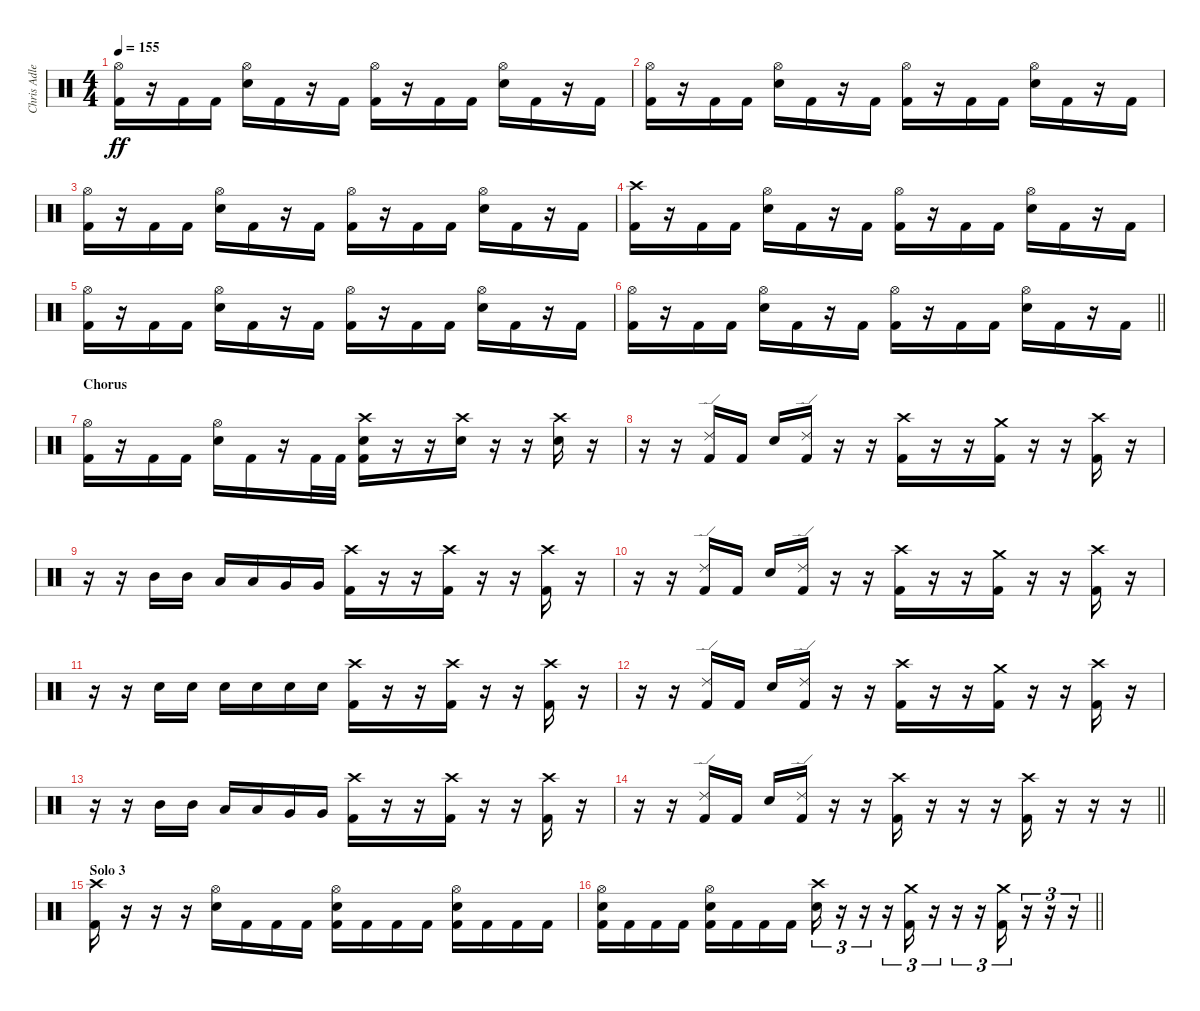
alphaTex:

\track ("Chris Adler" "Chris Adle") {instrument percussion}
\staff {score}
\articulation defaults
\ts (4 4)
\tempo 155
\clef neutral
\ks c
("Hi-Hat (open)" "Kick (hit) 2").16{dy ff} r.16 "Kick (hit) 2".16 "Kick (hit) 2".16 ("Hi-Hat (open)" "Snare (hit) 2").16 "Kick (hit) 2".16 r.16 "Kick (hit) 2".16 ("Hi-Hat (open)" "Kick (hit) 2").16 r.16 "Kick (hit) 2".16 "Kick (hit) 2".16 ("Hi-Hat (open)" "Snare (hit) 2").16 "Kick (hit) 2".16 r.16 "Kick (hit) 2".16 |
("Hi-Hat (open)" "Kick (hit) 2").16 r.16 "Kick (hit) 2".16 "Kick (hit) 2".16 ("Hi-Hat (open)" "Snare (hit) 2").16 "Kick (hit) 2".16 r.16 "Kick (hit) 2".16 ("Hi-Hat (open)" "Kick (hit) 2").16 r.16 "Kick (hit) 2".16 "Kick (hit) 2".16 ("Hi-Hat (open)" "Snare (hit) 2").16 "Kick (hit) 2".16 r.16 "Kick (hit) 2".16 |
("Hi-Hat (open)" "Kick (hit) 2").16 r.16 "Kick (hit) 2".16 "Kick (hit) 2".16 ("Hi-Hat (open)" "Snare (hit) 2").16 "Kick (hit) 2".16 r.16 "Kick (hit) 2".16 ("Hi-Hat (open)" "Kick (hit) 2").16 r.16 "Kick (hit) 2".16 "Kick (hit) 2".16 ("Hi-Hat (open)" "Snare (hit) 2").16 "Kick (hit) 2".16 r.16 "Kick (hit) 2".16 |
("Crash high (hit)" "Kick (hit) 2").16 r.16 "Kick (hit) 2".16 "Kick (hit) 2".16 ("Hi-Hat (open)" "Snare (hit) 2").16 "Kick (hit) 2".16 r.16 "Kick (hit) 2".16 ("Hi-Hat (open)" "Kick (hit) 2").16 r.16 "Kick (hit) 2".16 "Kick (hit) 2".16 ("Hi-Hat (open)" "Snare (hit) 2").16 "Kick (hit) 2".16 r.16 "Kick (hit) 2".16 |
("Hi-Hat (open)" "Kick (hit) 2").16 r.16 "Kick (hit) 2".16 "Kick (hit) 2".16 ("Hi-Hat (open)" "Snare (hit) 2").16 "Kick (hit) 2".16 r.16 "Kick (hit) 2".16 ("Hi-Hat (open)" "Kick (hit) 2").16 r.16 "Kick (hit) 2".16 "Kick (hit) 2".16 ("Hi-Hat (open)" "Snare (hit) 2").16 "Kick (hit) 2".16 r.16 "Kick (hit) 2".16 |
\barLineRight lightlight
("Hi-Hat (open)" "Kick (hit) 2").16 r.16 "Kick (hit) 2".16 "Kick (hit) 2".16 ("Hi-Hat (open)" "Snare (hit) 2").16 "Kick (hit) 2".16 r.16 "Kick (hit) 2".16 ("Hi-Hat (open)" "Kick (hit) 2").16 r.16 "Kick (hit) 2".16 "Kick (hit) 2".16 ("Hi-Hat (open)" "Snare (hit) 2").16 "Kick (hit) 2".16 r.16 "Kick (hit) 2".16 |
\section ("" "Chorus")
("Hi-Hat (open)" "Kick (hit) 2").16 r.16 "Kick (hit) 2".16 "Kick (hit) 2".16 ("Hi-Hat (open)" "Snare (hit) 2").16 "Kick (hit) 2".16 r.16 "Kick (hit) 2".32 "Kick (hit) 2".32 ("Crash high (hit)" "Snare (hit) 2" "Kick (hit) 2").16 r.16 r.16 ("Crash high (hit)" "Snare (hit) 2").16 r.16 r.16 ("Crash high (hit)" "Snare (hit) 2").16 r.16 |
r.16 r.16 ("Ride (edge) 2" "Kick (hit) 2").16 "Kick (hit) 2".16 "Snare (hit) 2".16 ("Ride (edge) 2" "Kick (hit) 2").16 r.16 r.16 ("Crash high (hit)" "Kick (hit) 2").16 r.16 r.16 ("Crash medium (hit)" "Kick (hit) 2").16 r.16 r.16 ("Crash high (hit)" "Kick (hit) 2").16 r.16 |
r.16 r.16 "Mid Tom (hit)".16 "Mid Tom (hit)".16 "Low Tom (hit)".16 "Low Tom (hit)".16 "Very Low Tom (hit)".16 "Very Low Tom (hit)".16 ("Crash high (hit)" "Kick (hit) 2").16 r.16 r.16 ("Crash high (hit)" "Kick (hit) 2").16 r.16 r.16 ("Crash high (hit)" "Kick (hit) 2").16 r.16 |
r.16 r.16 ("Ride (edge) 2" "Kick (hit) 2").16 "Kick (hit) 2".16 "Snare (hit) 2".16 ("Ride (edge) 2" "Kick (hit) 2").16 r.16 r.16 ("Crash high (hit)" "Kick (hit) 2").16 r.16 r.16 ("Crash medium (hit)" "Kick (hit) 2").16 r.16 r.16 ("Crash high (hit)" "Kick (hit) 2").16 r.16 |
r.16 r.16 "Snare (hit) 2".16 "Snare (hit) 2".16 "Snare (hit) 2".16 "Snare (hit) 2".16 "Snare (hit) 2".16 "Snare (hit) 2".16 ("Crash high (hit)" "Kick (hit) 2").16 r.16 r.16 ("Crash high (hit)" "Kick (hit) 2").16 r.16 r.16 ("Crash high (hit)" "Kick (hit) 2").16 r.16 |
r.16 r.16 ("Ride (edge) 2" "Kick (hit) 2").16 "Kick (hit) 2".16 "Snare (hit) 2".16 ("Ride (edge) 2" "Kick (hit) 2").16 r.16 r.16 ("Crash high (hit)" "Kick (hit) 2").16 r.16 r.16 ("Crash medium (hit)" "Kick (hit) 2").16 r.16 r.16 ("Crash high (hit)" "Kick (hit) 2").16 r.16 |
r.16 r.16 "Mid Tom (hit)".16 "Mid Tom (hit)".16 "Low Tom (hit)".16 "Low Tom (hit)".16 "Very Low Tom (hit)".16 "Very Low Tom (hit)".16 ("Crash high (hit)" "Kick (hit) 2").16 r.16 r.16 ("Crash high (hit)" "Kick (hit) 2").16 r.16 r.16 ("Crash high (hit)" "Kick (hit) 2").16 r.16 |
\barLineRight lightlight
r.16 r.16 ("Ride (edge) 2" "Kick (hit) 2").16 "Kick (hit) 2".16 "Snare (hit) 2".16 ("Ride (edge) 2" "Kick (hit) 2").16 r.16 r.16 ("Crash high (hit)" "Kick (hit) 2").16 r.16 r.16 r.16 ("Crash high (hit)" "Kick (hit) 2").16 r.16 r.16 r.16 |
\section ("" "Solo 3")
("Crash high (hit)" "Kick (hit) 2").16 r.16 r.16 r.16 ("Hi-Hat (open)" "Snare (hit) 2").16 "Kick (hit) 2".16 "Kick (hit) 2".16 "Kick (hit) 2".16 ("Hi-Hat (open)" "Snare (hit) 2" "Kick (hit) 2").16 "Kick (hit) 2".16 "Kick (hit) 2".16 "Kick (hit) 2".16 ("Hi-Hat (open)" "Snare (hit) 2" "Kick (hit) 2").16 "Kick (hit) 2".16 "Kick (hit) 2".16 "Kick (hit) 2".16 |
\barLineRight lightlight
("Hi-Hat (open)" "Snare (hit) 2" "Kick (hit) 2").16 "Kick (hit) 2".16 "Kick (hit) 2".16 "Kick (hit) 2".16 ("Hi-Hat (open)" "Snare (hit) 2" "Kick (hit) 2").16 "Kick (hit) 2".16 "Kick (hit) 2".16 "Kick (hit) 2".16 ("Crash high (hit)" "Snare (hit) 2").16{tu (3 2)} r.16{tu (3 2)} r.16{tu (3 2)} r.16{tu (3 2)} ("Crash medium (hit)" "Kick (hit) 2").16{tu (3 2)} r.16{tu (3 2)} r.16{tu (3 2)} r.16{tu (3 2)} ("Crash medium (hit)" "Kick (hit) 2").16{tu (3 2)} r.16{tu (3 2)} r.16{tu (3 2)} r.16{tu (3 2)}
